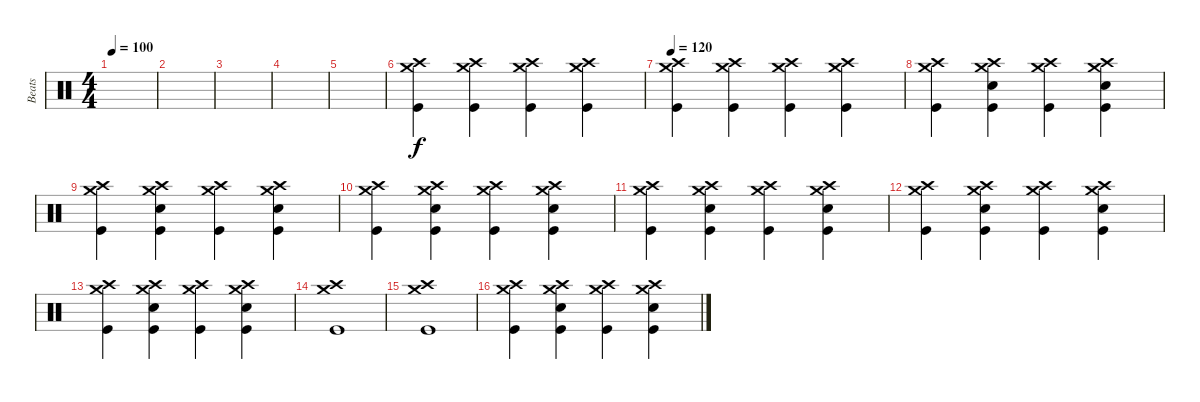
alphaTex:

\track ("Beats" "Beats") {instrument percussion}
\staff {score}
\articulation defaults
\ts (4 4)
\tempo 100
\clef neutral
\ks c
|
|
|
|
|
("Crash medium (hit)" "Crash high (hit)" "Kick (hit)").4 ("Crash medium (hit)" "Crash high (hit)" "Kick (hit)").4 ("Crash medium (hit)" "Crash high (hit)" "Kick (hit)").4 ("Crash medium (hit)" "Crash high (hit)" "Kick (hit)").4 |
\tempo 120
("Crash medium (hit)" "Crash high (hit)" "Kick (hit)").4 ("Crash medium (hit)" "Crash high (hit)" "Kick (hit)").4 ("Crash medium (hit)" "Crash high (hit)" "Kick (hit)").4 ("Crash medium (hit)" "Crash high (hit)" "Kick (hit)").4 |
("Crash medium (hit)" "Crash high (hit)" "Kick (hit)").4 ("Crash medium (hit)" "Crash high (hit)" "Electric Snare (hit)" "Kick (hit)").4 ("Crash medium (hit)" "Crash high (hit)" "Kick (hit)").4 ("Crash medium (hit)" "Crash high (hit)" "Electric Snare (hit)" "Kick (hit)").4 |
("Crash medium (hit)" "Crash high (hit)" "Kick (hit)").4 ("Crash medium (hit)" "Crash high (hit)" "Electric Snare (hit)" "Kick (hit)").4 ("Crash medium (hit)" "Crash high (hit)" "Kick (hit)").4 ("Crash medium (hit)" "Crash high (hit)" "Electric Snare (hit)" "Kick (hit)").4 |
("Crash medium (hit)" "Crash high (hit)" "Kick (hit)").4 ("Crash medium (hit)" "Crash high (hit)" "Electric Snare (hit)" "Kick (hit)").4 ("Crash medium (hit)" "Crash high (hit)" "Kick (hit)").4 ("Crash medium (hit)" "Crash high (hit)" "Electric Snare (hit)" "Kick (hit)").4 |
("Crash medium (hit)" "Crash high (hit)" "Kick (hit)").4 ("Crash medium (hit)" "Crash high (hit)" "Electric Snare (hit)" "Kick (hit)").4 ("Crash medium (hit)" "Crash high (hit)" "Kick (hit)").4 ("Crash medium (hit)" "Crash high (hit)" "Electric Snare (hit)" "Kick (hit)").4 |
("Crash medium (hit)" "Crash high (hit)" "Kick (hit)").4 ("Crash medium (hit)" "Crash high (hit)" "Electric Snare (hit)" "Kick (hit)").4 ("Crash medium (hit)" "Crash high (hit)" "Kick (hit)").4 ("Crash medium (hit)" "Crash high (hit)" "Electric Snare (hit)" "Kick (hit)").4 |
("Crash medium (hit)" "Crash high (hit)" "Kick (hit)").4 ("Crash medium (hit)" "Crash high (hit)" "Electric Snare (hit)" "Kick (hit)").4 ("Crash medium (hit)" "Crash high (hit)" "Kick (hit)").4 ("Crash medium (hit)" "Crash high (hit)" "Electric Snare (hit)" "Kick (hit)").4 |
("Crash medium (hit)" "Crash high (hit)" "Kick (hit)").1 |
("Crash medium (hit)" "Crash high (hit)" "Kick (hit)").1 |
("Crash medium (hit)" "Crash high (hit)" "Kick (hit)").4 ("Crash medium (hit)" "Crash high (hit)" "Electric Snare (hit)" "Kick (hit)").4 ("Crash medium (hit)" "Crash high (hit)" "Kick (hit)").4 ("Crash medium (hit)" "Crash high (hit)" "Electric Snare (hit)" "Kick (hit)").4
